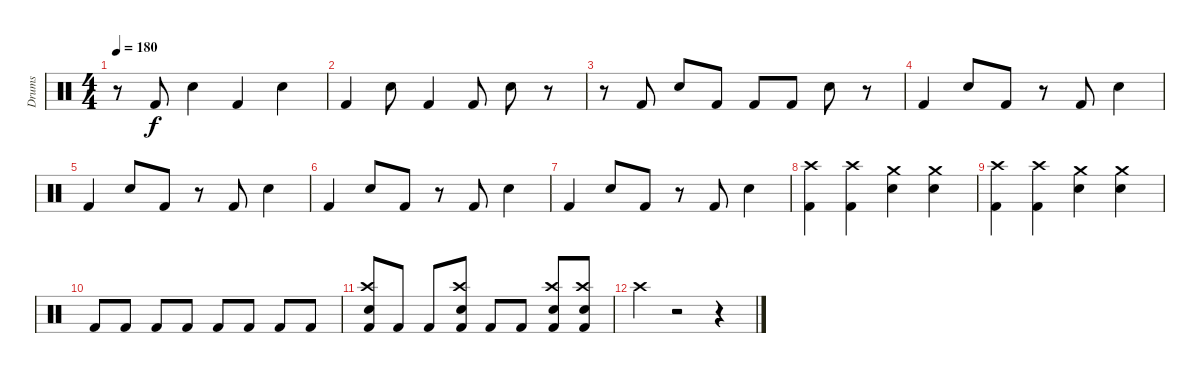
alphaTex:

\track ("Drums" "Drums") {instrument percussion}
\staff {score}
\articulation defaults
\ts (4 4)
\tempo 180
\clef neutral
\ks c
r.8{dy f} "Kick (hit) 2".8 "Snare (hit) 2".4 "Kick (hit) 2".4 "Snare (hit) 2".4 |
"Kick (hit) 2".4 "Snare (hit) 2".8 "Kick (hit) 2".4 "Kick (hit) 2".8 "Snare (hit) 2".8 r.8 |
r.8 "Kick (hit) 2".8 "Snare (hit) 2".8 "Kick (hit) 2".8 "Kick (hit) 2".8 "Kick (hit) 2".8 "Snare (hit) 2".8 r.8 |
"Kick (hit) 2".4 "Snare (hit) 2".8 "Kick (hit) 2".8 r.8 "Kick (hit) 2".8 "Snare (hit) 2".4 |
"Kick (hit) 2".4 "Snare (hit) 2".8 "Kick (hit) 2".8 r.8 "Kick (hit) 2".8 "Snare (hit) 2".4 |
"Kick (hit) 2".4 "Snare (hit) 2".8 "Kick (hit) 2".8 r.8 "Kick (hit) 2".8 "Snare (hit) 2".4 |
"Kick (hit) 2".4 "Snare (hit) 2".8 "Kick (hit) 2".8 r.8 "Kick (hit) 2".8 "Snare (hit) 2".4 |
("Crash high (hit)" "Kick (hit) 2").4 ("Crash high (hit)" "Kick (hit) 2").4 ("Crash medium (hit)" "Snare (hit) 2").4 ("Crash medium (hit)" "Snare (hit) 2").4 |
("Crash high (hit)" "Kick (hit) 2").4 ("Crash high (hit)" "Kick (hit) 2").4 ("Crash medium (hit)" "Snare (hit) 2").4 ("Crash medium (hit)" "Snare (hit) 2").4 |
"Kick (hit) 2".8 "Kick (hit) 2".8 "Kick (hit) 2".8 "Kick (hit) 2".8 "Kick (hit) 2".8 "Kick (hit) 2".8 "Kick (hit) 2".8 "Kick (hit) 2".8 |
("Crash high (hit)" "Kick (hit) 2" "Electric Snare (hit)").8 "Kick (hit) 2".8 "Kick (hit) 2".8 ("Crash high (hit)" "Kick (hit) 2" "Electric Snare (hit)").8 "Kick (hit) 2".8 "Kick (hit) 2".8 ("Crash high (hit)" "Kick (hit) 2" "Electric Snare (hit)").8 ("Crash high (hit)" "Kick (hit) 2" "Electric Snare (hit)").8 |
"Crash high (hit)".4 r.2 r.4
